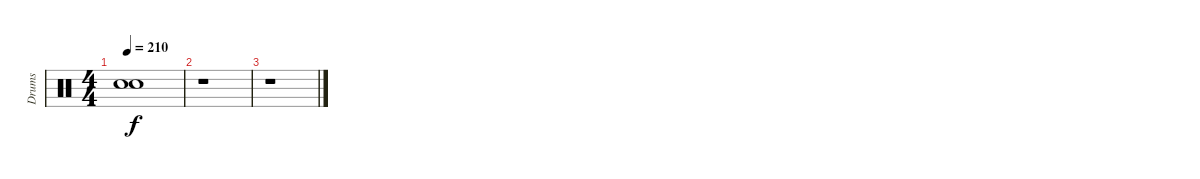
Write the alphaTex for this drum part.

\track ("Drums" "Drums") {instrument percussion}
\staff {score}
\articulation defaults
\ts (4 4)
\tempo 210
\clef neutral
\ks c
("Snare (hit)"{t} "Snare (hit)"{t}).1{dy f} |
r.1 |
r.1
